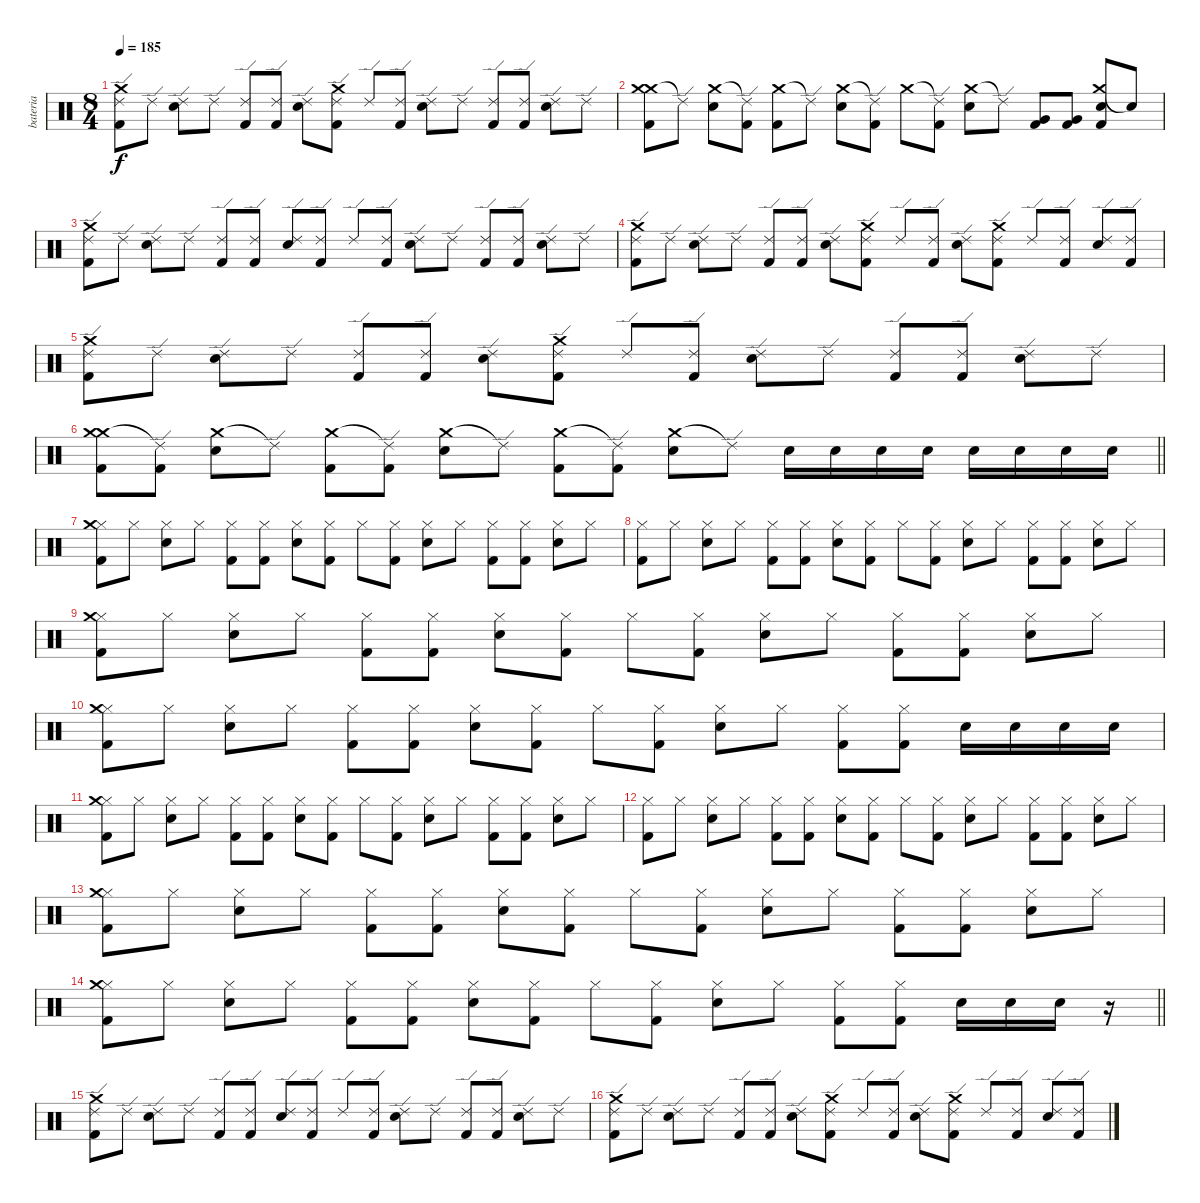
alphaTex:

\track ("bateria" "bateria") {instrument percussion}
\staff {score}
\articulation defaults
\ts (8 4)
\tempo 185
\clef neutral
\ks c
("Ride (edge) 2" "Kick (hit) 2" "Crash medium (hit)").8{dy f} "Ride (edge) 2".8 ("Ride (edge) 2" "Electric Snare (hit)").8 "Ride (edge) 2".8 ("Ride (edge) 2" "Kick (hit) 2").8 ("Ride (edge) 2" "Kick (hit) 2").8 ("Ride (edge) 2" "Electric Snare (hit)").8 ("Ride (edge) 2" "Kick (hit) 2" "Crash medium (hit)").8 "Ride (edge) 2".8 ("Ride (edge) 2" "Kick (hit) 2").8 ("Ride (edge) 2" "Electric Snare (hit)").8 "Ride (edge) 2".8 ("Ride (edge) 2" "Kick (hit) 2").8 ("Ride (edge) 2" "Kick (hit) 2").8 ("Ride (edge) 2" "Electric Snare (hit)").8 "Ride (edge) 2".8 |
("Crash medium (hit)" "Kick (hit) 2" "Crash medium (hit)").8 "Ride (edge) 2"{t}.8 ("Crash medium (hit)" "Electric Snare (hit)").8 ("Ride (edge) 2"{t} "Kick (hit) 2").8 ("Crash medium (hit)" "Kick (hit) 2").8 "Ride (edge) 2"{t}.8 ("Crash medium (hit)" "Electric Snare (hit)").8 ("Ride (edge) 2"{t} "Kick (hit) 2").8 "Crash medium (hit)".8 ("Ride (edge) 2"{t} "Kick (hit) 2").8 ("Crash medium (hit)" "Electric Snare (hit)").8 "Ride (edge) 2"{t}.8 ("Very Low Tom (hit)" "Kick (hit) 2").8 ("Very Low Tom (hit)" "Kick (hit) 2").8 ("Crash medium (hit)" "Electric Snare (hit)" "Kick (hit) 2").8 "Snare (hit)"{t}.8 |
("Ride (edge) 2" "Kick (hit) 2" "Crash medium (hit)").8 "Ride (edge) 2".8 ("Ride (edge) 2" "Electric Snare (hit)").8 "Ride (edge) 2".8 ("Ride (edge) 2" "Kick (hit) 2").8 ("Ride (edge) 2" "Kick (hit) 2").8 ("Ride (edge) 2" "Electric Snare (hit)").8 ("Ride (edge) 2" "Kick (hit) 2").8 "Ride (edge) 2".8 ("Ride (edge) 2" "Kick (hit) 2").8 ("Ride (edge) 2" "Electric Snare (hit)").8 "Ride (edge) 2".8 ("Ride (edge) 2" "Kick (hit) 2").8 ("Ride (edge) 2" "Kick (hit) 2").8 ("Ride (edge) 2" "Electric Snare (hit)").8 "Ride (edge) 2".8 |
("Ride (edge) 2" "Kick (hit) 2" "Crash medium (hit)").8 "Ride (edge) 2".8 ("Ride (edge) 2" "Electric Snare (hit)").8 "Ride (edge) 2".8 ("Ride (edge) 2" "Kick (hit) 2").8 ("Ride (edge) 2" "Kick (hit) 2").8 ("Ride (edge) 2" "Electric Snare (hit)").8 ("Ride (edge) 2" "Kick (hit) 2" "Crash medium (hit)").8 "Ride (edge) 2".8 ("Ride (edge) 2" "Kick (hit) 2").8 ("Ride (edge) 2" "Electric Snare (hit)").8 ("Ride (edge) 2" "Kick (hit) 2" "Crash medium (hit)").8 "Ride (edge) 2".8 ("Ride (edge) 2" "Kick (hit) 2").8 ("Ride (edge) 2" "Electric Snare (hit)").8 ("Ride (edge) 2" "Kick (hit) 2").8 |
("Ride (edge) 2" "Kick (hit) 2" "Crash medium (hit)").8 "Ride (edge) 2".8 ("Ride (edge) 2" "Electric Snare (hit)").8 "Ride (edge) 2".8 ("Ride (edge) 2" "Kick (hit) 2").8 ("Ride (edge) 2" "Kick (hit) 2").8 ("Ride (edge) 2" "Electric Snare (hit)").8 ("Ride (edge) 2" "Kick (hit) 2" "Crash medium (hit)").8 "Ride (edge) 2".8 ("Ride (edge) 2" "Kick (hit) 2").8 ("Ride (edge) 2" "Electric Snare (hit)").8 "Ride (edge) 2".8 ("Ride (edge) 2" "Kick (hit) 2").8 ("Ride (edge) 2" "Kick (hit) 2").8 ("Ride (edge) 2" "Electric Snare (hit)").8 "Ride (edge) 2".8 |
\barLineRight lightlight
("Crash medium (hit)" "Kick (hit) 2" "Crash medium (hit)").8 ("Ride (edge) 2"{t} "Kick (hit) 2").8 ("Crash medium (hit)" "Electric Snare (hit)").8 "Ride (edge) 2"{t}.8 ("Crash medium (hit)" "Kick (hit) 2").8 ("Ride (edge) 2"{t} "Kick (hit) 2").8 ("Crash medium (hit)" "Electric Snare (hit)").8 "Ride (edge) 2"{t}.8 ("Crash medium (hit)" "Kick (hit) 2").8 ("Ride (edge) 2"{t} "Kick (hit) 2").8 ("Crash medium (hit)" "Electric Snare (hit)").8 "Ride (edge) 2"{t}.8 "Electric Snare (hit)".16 "Electric Snare (hit)".16 "Electric Snare (hit)".16 "Electric Snare (hit)".16 "Electric Snare (hit)".16 "Electric Snare (hit)".16 "Electric Snare (hit)".16 "Electric Snare (hit)".16 |
("Hi-Hat (closed)" "Kick (hit) 2" "Crash medium (hit)").8 "Hi-Hat (closed)".8 ("Hi-Hat (closed)" "Electric Snare (hit)").8 "Hi-Hat (closed)".8 ("Hi-Hat (closed)" "Kick (hit) 2").8 ("Hi-Hat (closed)" "Kick (hit) 2").8 ("Hi-Hat (closed)" "Electric Snare (hit)").8 ("Hi-Hat (closed)" "Kick (hit) 2").8 "Hi-Hat (closed)".8 ("Hi-Hat (closed)" "Kick (hit) 2").8 ("Hi-Hat (closed)" "Electric Snare (hit)").8 "Hi-Hat (closed)".8 ("Hi-Hat (closed)" "Kick (hit) 2").8 ("Hi-Hat (closed)" "Kick (hit) 2").8 ("Hi-Hat (closed)" "Electric Snare (hit)").8 "Hi-Hat (closed)".8 |
("Hi-Hat (closed)" "Kick (hit) 2").8 "Hi-Hat (closed)".8 ("Hi-Hat (closed)" "Electric Snare (hit)").8 "Hi-Hat (closed)".8 ("Hi-Hat (closed)" "Kick (hit) 2").8 ("Hi-Hat (closed)" "Kick (hit) 2").8 ("Hi-Hat (closed)" "Electric Snare (hit)").8 ("Hi-Hat (closed)" "Kick (hit) 2").8 "Hi-Hat (closed)".8 ("Hi-Hat (closed)" "Kick (hit) 2").8 ("Hi-Hat (closed)" "Electric Snare (hit)").8 "Hi-Hat (closed)".8 ("Hi-Hat (closed)" "Kick (hit) 2").8 ("Hi-Hat (closed)" "Kick (hit) 2").8 ("Hi-Hat (closed)" "Electric Snare (hit)").8 "Hi-Hat (closed)".8 |
("Hi-Hat (closed)" "Kick (hit) 2" "Crash medium (hit)").8 "Hi-Hat (closed)".8 ("Hi-Hat (closed)" "Electric Snare (hit)").8 "Hi-Hat (closed)".8 ("Hi-Hat (closed)" "Kick (hit) 2").8 ("Hi-Hat (closed)" "Kick (hit) 2").8 ("Hi-Hat (closed)" "Electric Snare (hit)").8 ("Hi-Hat (closed)" "Kick (hit) 2").8 "Hi-Hat (closed)".8 ("Hi-Hat (closed)" "Kick (hit) 2").8 ("Hi-Hat (closed)" "Electric Snare (hit)").8 "Hi-Hat (closed)".8 ("Hi-Hat (closed)" "Kick (hit) 2").8 ("Hi-Hat (closed)" "Kick (hit) 2").8 ("Hi-Hat (closed)" "Electric Snare (hit)").8 "Hi-Hat (closed)".8 |
("Hi-Hat (closed)" "Kick (hit) 2" "Crash medium (hit)").8 "Hi-Hat (closed)".8 ("Hi-Hat (closed)" "Electric Snare (hit)").8 "Hi-Hat (closed)".8 ("Hi-Hat (closed)" "Kick (hit) 2").8 ("Hi-Hat (closed)" "Kick (hit) 2").8 ("Hi-Hat (closed)" "Electric Snare (hit)").8 ("Hi-Hat (closed)" "Kick (hit) 2").8 "Hi-Hat (closed)".8 ("Hi-Hat (closed)" "Kick (hit) 2").8 ("Hi-Hat (closed)" "Electric Snare (hit)").8 "Hi-Hat (closed)".8 ("Hi-Hat (closed)" "Kick (hit) 2").8 ("Hi-Hat (closed)" "Kick (hit) 2").8 "Electric Snare (hit)".16 "Electric Snare (hit)".16 "Electric Snare (hit)".16 "Electric Snare (hit)".16 |
("Hi-Hat (closed)" "Kick (hit) 2" "Crash medium (hit)").8 "Hi-Hat (closed)".8 ("Hi-Hat (closed)" "Electric Snare (hit)").8 "Hi-Hat (closed)".8 ("Hi-Hat (closed)" "Kick (hit) 2").8 ("Hi-Hat (closed)" "Kick (hit) 2").8 ("Hi-Hat (closed)" "Electric Snare (hit)").8 ("Hi-Hat (closed)" "Kick (hit) 2").8 "Hi-Hat (closed)".8 ("Hi-Hat (closed)" "Kick (hit) 2").8 ("Hi-Hat (closed)" "Electric Snare (hit)").8 "Hi-Hat (closed)".8 ("Hi-Hat (closed)" "Kick (hit) 2").8 ("Hi-Hat (closed)" "Kick (hit) 2").8 ("Hi-Hat (closed)" "Electric Snare (hit)").8 "Hi-Hat (closed)".8 |
("Hi-Hat (closed)" "Kick (hit) 2").8 "Hi-Hat (closed)".8 ("Hi-Hat (closed)" "Electric Snare (hit)").8 "Hi-Hat (closed)".8 ("Hi-Hat (closed)" "Kick (hit) 2").8 ("Hi-Hat (closed)" "Kick (hit) 2").8 ("Hi-Hat (closed)" "Electric Snare (hit)").8 ("Hi-Hat (closed)" "Kick (hit) 2").8 "Hi-Hat (closed)".8 ("Hi-Hat (closed)" "Kick (hit) 2").8 ("Hi-Hat (closed)" "Electric Snare (hit)").8 "Hi-Hat (closed)".8 ("Hi-Hat (closed)" "Kick (hit) 2").8 ("Hi-Hat (closed)" "Kick (hit) 2").8 ("Hi-Hat (closed)" "Electric Snare (hit)").8 "Hi-Hat (closed)".8 |
("Hi-Hat (closed)" "Kick (hit) 2" "Crash medium (hit)").8 "Hi-Hat (closed)".8 ("Hi-Hat (closed)" "Electric Snare (hit)").8 "Hi-Hat (closed)".8 ("Hi-Hat (closed)" "Kick (hit) 2").8 ("Hi-Hat (closed)" "Kick (hit) 2").8 ("Hi-Hat (closed)" "Electric Snare (hit)").8 ("Hi-Hat (closed)" "Kick (hit) 2").8 "Hi-Hat (closed)".8 ("Hi-Hat (closed)" "Kick (hit) 2").8 ("Hi-Hat (closed)" "Electric Snare (hit)").8 "Hi-Hat (closed)".8 ("Hi-Hat (closed)" "Kick (hit) 2").8 ("Hi-Hat (closed)" "Kick (hit) 2").8 ("Hi-Hat (closed)" "Electric Snare (hit)").8 "Hi-Hat (closed)".8 |
\barLineRight lightlight
("Hi-Hat (closed)" "Kick (hit) 2" "Crash medium (hit)").8 "Hi-Hat (closed)".8 ("Hi-Hat (closed)" "Electric Snare (hit)").8 "Hi-Hat (closed)".8 ("Hi-Hat (closed)" "Kick (hit) 2").8 ("Hi-Hat (closed)" "Kick (hit) 2").8 ("Hi-Hat (closed)" "Electric Snare (hit)").8 ("Hi-Hat (closed)" "Kick (hit) 2").8 "Hi-Hat (closed)".8 ("Hi-Hat (closed)" "Kick (hit) 2").8 ("Hi-Hat (closed)" "Electric Snare (hit)").8 "Hi-Hat (closed)".8 ("Hi-Hat (closed)" "Kick (hit) 2").8 ("Hi-Hat (closed)" "Kick (hit) 2").8 "Electric Snare (hit)".16 "Electric Snare (hit)".16 "Electric Snare (hit)".16 r.16 |
("Ride (edge) 2" "Kick (hit) 2" "Crash medium (hit)").8 "Ride (edge) 2".8 ("Ride (edge) 2" "Electric Snare (hit)").8 "Ride (edge) 2".8 ("Ride (edge) 2" "Kick (hit) 2").8 ("Ride (edge) 2" "Kick (hit) 2").8 ("Ride (edge) 2" "Electric Snare (hit)").8 ("Ride (edge) 2" "Kick (hit) 2").8 "Ride (edge) 2".8 ("Ride (edge) 2" "Kick (hit) 2").8 ("Ride (edge) 2" "Electric Snare (hit)").8 "Ride (edge) 2".8 ("Ride (edge) 2" "Kick (hit) 2").8 ("Ride (edge) 2" "Kick (hit) 2").8 ("Ride (edge) 2" "Electric Snare (hit)").8 "Ride (edge) 2".8 |
("Ride (edge) 2" "Kick (hit) 2" "Crash medium (hit)").8 "Ride (edge) 2".8 ("Ride (edge) 2" "Electric Snare (hit)").8 "Ride (edge) 2".8 ("Ride (edge) 2" "Kick (hit) 2").8 ("Ride (edge) 2" "Kick (hit) 2").8 ("Ride (edge) 2" "Electric Snare (hit)").8 ("Ride (edge) 2" "Kick (hit) 2" "Crash medium (hit)").8 "Ride (edge) 2".8 ("Ride (edge) 2" "Kick (hit) 2").8 ("Ride (edge) 2" "Electric Snare (hit)").8 ("Ride (edge) 2" "Kick (hit) 2" "Crash medium (hit)").8 "Ride (edge) 2".8 ("Ride (edge) 2" "Kick (hit) 2").8 ("Ride (edge) 2" "Electric Snare (hit)").8 ("Ride (edge) 2" "Kick (hit) 2").8
